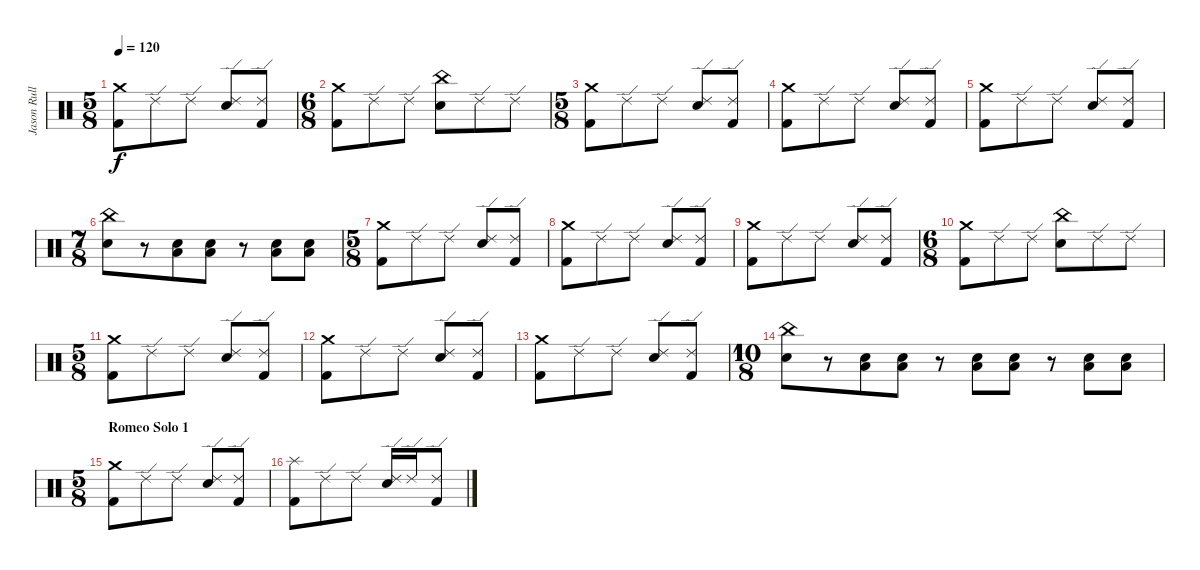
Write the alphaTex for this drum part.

\track ("Jason Rullo" "Jason Rull") {instrument percussion}
\staff {score}
\articulation defaults
\ts (5 8)
\tempo 120
\clef neutral
\ks c
("Crash medium (hit)" "Kick (hit) 2").8{dy f} "Ride (edge) 2".8 "Ride (edge) 2".8 ("Ride (edge) 2" "Electric Snare (hit)").8 ("Ride (edge) 2" "Kick (hit) 2").8 |
\ts (6 8)
("Crash medium (hit)" "Kick (hit) 2").8 "Ride (edge) 2".8 "Ride (edge) 2".8 ("China (hit)" "Electric Snare (hit)").8 "Ride (edge) 2".8 "Ride (edge) 2".8 |
\ts (5 8)
("Crash medium (hit)" "Kick (hit) 2").8 "Ride (edge) 2".8 "Ride (edge) 2".8 ("Ride (edge) 2" "Electric Snare (hit)").8 ("Ride (edge) 2" "Kick (hit) 2").8 |
("Crash medium (hit)" "Kick (hit) 2").8 "Ride (edge) 2".8 "Ride (edge) 2".8 ("Ride (edge) 2" "Electric Snare (hit)").8 ("Ride (edge) 2" "Kick (hit) 2").8 |
("Crash medium (hit)" "Kick (hit) 2").8 "Ride (edge) 2".8 "Ride (edge) 2".8 ("Ride (edge) 2" "Electric Snare (hit)").8 ("Ride (edge) 2" "Kick (hit) 2").8 |
\ts (7 8)
("China (hit)" "Electric Snare (hit)").8 r.8 ("Low Tom (hit)" "Electric Snare (hit)").8 ("Low Tom (hit)" "Electric Snare (hit)").8 r.8 ("Low Tom (hit)" "Electric Snare (hit)").8 ("Low Tom (hit)" "Electric Snare (hit)").8 |
\ts (5 8)
("Crash medium (hit)" "Kick (hit) 2").8 "Ride (edge) 2".8 "Ride (edge) 2".8 ("Ride (edge) 2" "Electric Snare (hit)").8 ("Ride (edge) 2" "Kick (hit) 2").8 |
("Crash medium (hit)" "Kick (hit) 2").8 "Ride (edge) 2".8 "Ride (edge) 2".8 ("Ride (edge) 2" "Electric Snare (hit)").8 ("Ride (edge) 2" "Kick (hit) 2").8 |
("Crash medium (hit)" "Kick (hit) 2").8 "Ride (edge) 2".8 "Ride (edge) 2".8 ("Ride (edge) 2" "Electric Snare (hit)").8 ("Ride (edge) 2" "Kick (hit) 2").8 |
\ts (6 8)
("Crash medium (hit)" "Kick (hit) 2").8 "Ride (edge) 2".8 "Ride (edge) 2".8 ("China (hit)" "Electric Snare (hit)").8 "Ride (edge) 2".8 "Ride (edge) 2".8 |
\ts (5 8)
("Crash medium (hit)" "Kick (hit) 2").8 "Ride (edge) 2".8 "Ride (edge) 2".8 ("Ride (edge) 2" "Electric Snare (hit)").8 ("Ride (edge) 2" "Kick (hit) 2").8 |
("Crash medium (hit)" "Kick (hit) 2").8 "Ride (edge) 2".8 "Ride (edge) 2".8 ("Ride (edge) 2" "Electric Snare (hit)").8 ("Ride (edge) 2" "Kick (hit) 2").8 |
("Crash medium (hit)" "Kick (hit) 2").8 "Ride (edge) 2".8 "Ride (edge) 2".8 ("Ride (edge) 2" "Electric Snare (hit)").8 ("Ride (edge) 2" "Kick (hit) 2").8 |
\ts (10 8)
("China (hit)" "Electric Snare (hit)").8 r.8 ("Low Tom (hit)" "Electric Snare (hit)").8 ("Low Tom (hit)" "Electric Snare (hit)").8 r.8 ("Low Tom (hit)" "Electric Snare (hit)").8 ("Low Tom (hit)" "Electric Snare (hit)").8 r.8 ("Electric Snare (hit)" "Low Tom (hit)").8 ("Electric Snare (hit)" "Low Tom (hit)").8 |
\ts (5 8)
\section ("" "Romeo Solo 1")
("Kick (hit) 2" "Crash medium (hit)").8 "Ride (edge) 2".8 "Ride (edge) 2".8 ("Electric Snare (hit)" "Ride (edge) 2").8 ("Kick (hit) 2" "Ride (edge) 2").8 |
("Kick (hit) 2" "Splash (hit)").8 "Ride (edge) 2".8 "Ride (edge) 2".8 ("Electric Snare (hit)" "Ride (edge) 2").16 "Ride (edge) 2".16 ("Kick (hit) 2" "Ride (edge) 2").8
